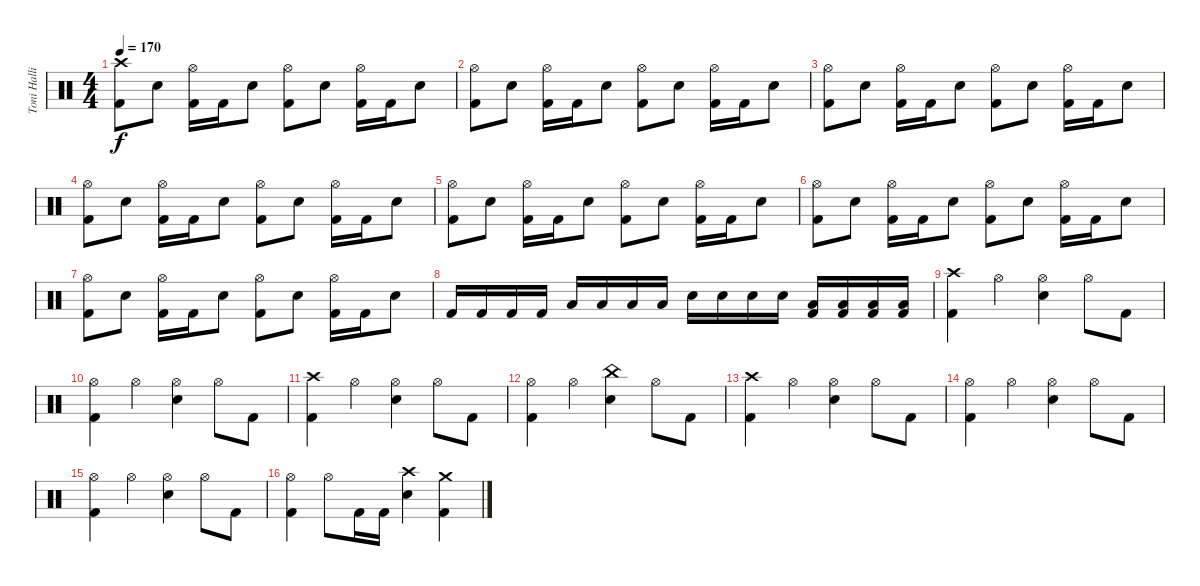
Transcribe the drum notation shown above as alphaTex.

\track ("Toni Hallio" "Toni Halli") {instrument percussion}
\staff {score}
\articulation defaults
\ts (4 4)
\tempo 170
\clef neutral
\ks c
("Crash high (hit)" "Kick (hit) 2").8{dy f} "Snare (hit) 2".8 ("Hi-Hat (open)" "Kick (hit) 2").16 "Kick (hit) 2".16 "Snare (hit) 2".8 ("Hi-Hat (open)" "Kick (hit) 2").8 "Snare (hit) 2".8 ("Hi-Hat (open)" "Kick (hit) 2").16 "Kick (hit) 2".16 "Snare (hit) 2".8 |
("Hi-Hat (open)" "Kick (hit) 2").8 "Snare (hit) 2".8 ("Hi-Hat (open)" "Kick (hit) 2").16 "Kick (hit) 2".16 "Snare (hit) 2".8 ("Hi-Hat (open)" "Kick (hit) 2").8 "Snare (hit) 2".8 ("Hi-Hat (open)" "Kick (hit) 2").16 "Kick (hit) 2".16 "Snare (hit) 2".8 |
("Hi-Hat (open)" "Kick (hit) 2").8 "Snare (hit) 2".8 ("Hi-Hat (open)" "Kick (hit) 2").16 "Kick (hit) 2".16 "Snare (hit) 2".8 ("Hi-Hat (open)" "Kick (hit) 2").8 "Snare (hit) 2".8 ("Hi-Hat (open)" "Kick (hit) 2").16 "Kick (hit) 2".16 "Snare (hit) 2".8 |
("Hi-Hat (open)" "Kick (hit) 2").8 "Snare (hit) 2".8 ("Hi-Hat (open)" "Kick (hit) 2").16 "Kick (hit) 2".16 "Snare (hit) 2".8 ("Hi-Hat (open)" "Kick (hit) 2").8 "Snare (hit) 2".8 ("Hi-Hat (open)" "Kick (hit) 2").16 "Kick (hit) 2".16 "Snare (hit) 2".8 |
("Hi-Hat (open)" "Kick (hit) 2").8 "Snare (hit) 2".8 ("Hi-Hat (open)" "Kick (hit) 2").16 "Kick (hit) 2".16 "Snare (hit) 2".8 ("Hi-Hat (open)" "Kick (hit) 2").8 "Snare (hit) 2".8 ("Hi-Hat (open)" "Kick (hit) 2").16 "Kick (hit) 2".16 "Snare (hit) 2".8 |
("Hi-Hat (open)" "Kick (hit) 2").8 "Snare (hit) 2".8 ("Hi-Hat (open)" "Kick (hit) 2").16 "Kick (hit) 2".16 "Snare (hit) 2".8 ("Hi-Hat (open)" "Kick (hit) 2").8 "Snare (hit) 2".8 ("Hi-Hat (open)" "Kick (hit) 2").16 "Kick (hit) 2".16 "Snare (hit) 2".8 |
("Hi-Hat (open)" "Kick (hit) 2").8 "Snare (hit) 2".8 ("Hi-Hat (open)" "Kick (hit) 2").16 "Kick (hit) 2".16 "Snare (hit) 2".8 ("Hi-Hat (open)" "Kick (hit) 2").8 "Snare (hit) 2".8 ("Hi-Hat (open)" "Kick (hit) 2").16 "Kick (hit) 2".16 "Snare (hit) 2".8 |
"Kick (hit) 2".16 "Kick (hit) 2".16 "Kick (hit) 2".16 "Kick (hit) 2".16 "Low Floor Tom (hit)".16 "Low Floor Tom (hit)".16 "Low Floor Tom (hit)".16 "Low Floor Tom (hit)".16 "Snare (hit) 2".16 "Snare (hit) 2".16 "Snare (hit) 2".16 "Snare (hit) 2".16 ("Low Floor Tom (hit)" "Kick (hit) 2").16 ("Low Floor Tom (hit)" "Kick (hit) 2").16 ("Low Floor Tom (hit)" "Kick (hit) 2").16 ("Low Floor Tom (hit)" "Kick (hit) 2").16 |
("Crash high (hit)" "Kick (hit) 2").4 "Hi-Hat (open)".4 ("Hi-Hat (open)" "Snare (hit) 2").4 "Hi-Hat (open)".8 "Kick (hit) 2".8 |
("Hi-Hat (open)" "Kick (hit) 2").4 "Hi-Hat (open)".4 ("Hi-Hat (open)" "Snare (hit) 2").4 "Hi-Hat (open)".8 "Kick (hit) 2".8 |
("Crash high (hit)" "Kick (hit) 2").4 "Hi-Hat (open)".4 ("Hi-Hat (open)" "Snare (hit) 2").4 "Hi-Hat (open)".8 "Kick (hit) 2".8 |
("Hi-Hat (open)" "Kick (hit) 2").4 "Hi-Hat (open)".4 ("China (hit)" "Snare (hit) 2").4 "Hi-Hat (open)".8 "Kick (hit) 2".8 |
("Crash high (hit)" "Kick (hit) 2").4 "Hi-Hat (open)".4 ("Hi-Hat (open)" "Snare (hit) 2").4 "Hi-Hat (open)".8 "Kick (hit) 2".8 |
("Hi-Hat (open)" "Kick (hit) 2").4 "Hi-Hat (open)".4 ("Hi-Hat (open)" "Snare (hit) 2").4 "Hi-Hat (open)".8 "Kick (hit) 2".8 |
("Hi-Hat (open)" "Kick (hit) 2").4 "Hi-Hat (open)".4 ("Hi-Hat (open)" "Snare (hit) 2").4 "Hi-Hat (open)".8 "Kick (hit) 2".8 |
("Hi-Hat (open)" "Kick (hit) 2").4 "Hi-Hat (open)".8 "Kick (hit) 2".16 "Kick (hit) 2".16 ("Crash high (hit)" "Snare (hit) 2").4 ("Crash medium (hit)" "Kick (hit) 2").4
